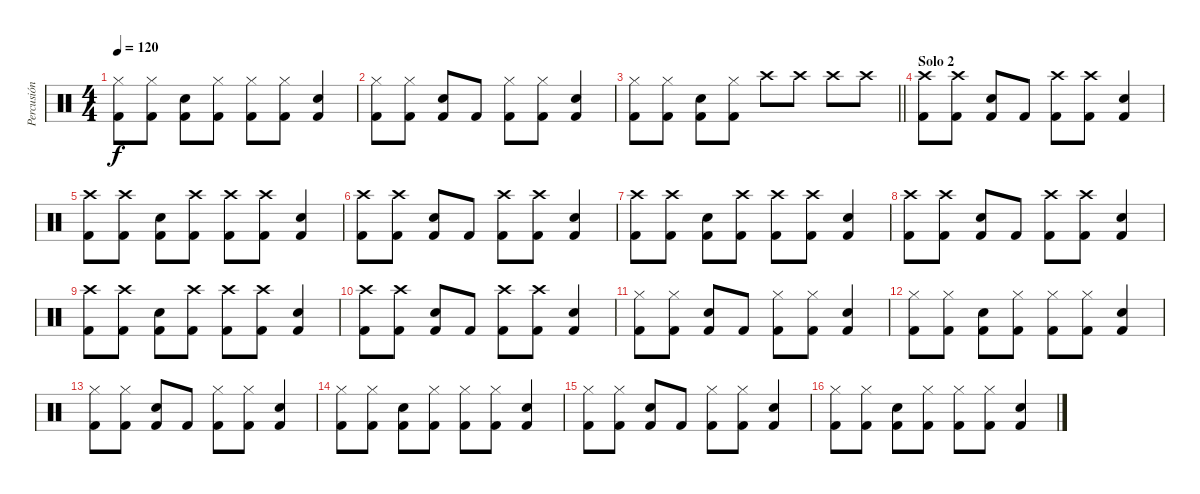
\track ("Percusión" "Percusión") {instrument percussion}
\staff {score}
\articulation defaults
\ts (4 4)
\tempo 120
\clef neutral
\ks c
("Hi-Hat (closed)" "Kick (hit) 2").8{dy f} ("Hi-Hat (closed)" "Kick (hit) 2").8 ("Snare (hit) 2" "Kick (hit) 2").8 ("Hi-Hat (closed)" "Kick (hit) 2").8 ("Hi-Hat (closed)" "Kick (hit) 2").8 ("Hi-Hat (closed)" "Kick (hit) 2").8 ("Snare (hit) 2" "Kick (hit) 2").4 |
("Hi-Hat (closed)" "Kick (hit) 2").8 ("Hi-Hat (closed)" "Kick (hit) 2").8 ("Snare (hit) 2" "Kick (hit) 2").8 "Kick (hit) 2".8 ("Hi-Hat (closed)" "Kick (hit) 2").8 ("Hi-Hat (closed)" "Kick (hit) 2").8 ("Snare (hit) 2" "Kick (hit) 2").4 |
\barLineRight lightlight
("Hi-Hat (closed)" "Kick (hit) 2").8 ("Hi-Hat (closed)" "Kick (hit) 2").8 ("Snare (hit) 2" "Kick (hit) 2").8 ("Hi-Hat (closed)" "Kick (hit) 2").8 "Crash high (hit)".8 "Crash high (hit)".8 "Crash high (hit)".8 "Crash high (hit)".8 |
\section ("" "Solo 2")
("Crash high (hit)" "Kick (hit) 2").8 ("Crash high (hit)" "Kick (hit) 2").8 ("Snare (hit) 2" "Kick (hit) 2").8 "Kick (hit) 2".8 ("Crash high (hit)" "Kick (hit) 2").8 ("Crash high (hit)" "Kick (hit) 2").8 ("Snare (hit) 2" "Kick (hit) 2").4 |
("Crash high (hit)" "Kick (hit) 2").8 ("Crash high (hit)" "Kick (hit) 2").8 ("Snare (hit) 2" "Kick (hit) 2").8 ("Crash high (hit)" "Kick (hit) 2").8 ("Crash high (hit)" "Kick (hit) 2").8 ("Crash high (hit)" "Kick (hit) 2").8 ("Snare (hit) 2" "Kick (hit) 2").4 |
("Crash high (hit)" "Kick (hit) 2").8 ("Crash high (hit)" "Kick (hit) 2").8 ("Snare (hit) 2" "Kick (hit) 2").8 "Kick (hit) 2".8 ("Crash high (hit)" "Kick (hit) 2").8 ("Crash high (hit)" "Kick (hit) 2").8 ("Snare (hit) 2" "Kick (hit) 2").4 |
("Crash high (hit)" "Kick (hit) 2").8 ("Crash high (hit)" "Kick (hit) 2").8 ("Snare (hit) 2" "Kick (hit) 2").8 ("Crash high (hit)" "Kick (hit) 2").8 ("Crash high (hit)" "Kick (hit) 2").8 ("Crash high (hit)" "Kick (hit) 2").8 ("Snare (hit) 2" "Kick (hit) 2").4 |
("Crash high (hit)" "Kick (hit) 2").8 ("Crash high (hit)" "Kick (hit) 2").8 ("Snare (hit) 2" "Kick (hit) 2").8 "Kick (hit) 2".8 ("Crash high (hit)" "Kick (hit) 2").8 ("Crash high (hit)" "Kick (hit) 2").8 ("Snare (hit) 2" "Kick (hit) 2").4 |
("Crash high (hit)" "Kick (hit) 2").8 ("Crash high (hit)" "Kick (hit) 2").8 ("Snare (hit) 2" "Kick (hit) 2").8 ("Crash high (hit)" "Kick (hit) 2").8 ("Crash high (hit)" "Kick (hit) 2").8 ("Crash high (hit)" "Kick (hit) 2").8 ("Snare (hit) 2" "Kick (hit) 2").4 |
("Crash high (hit)" "Kick (hit) 2").8 ("Crash high (hit)" "Kick (hit) 2").8 ("Snare (hit) 2" "Kick (hit) 2").8 "Kick (hit) 2".8 ("Crash high (hit)" "Kick (hit) 2").8 ("Crash high (hit)" "Kick (hit) 2").8 ("Snare (hit) 2" "Kick (hit) 2").4 |
("Hi-Hat (closed)" "Kick (hit) 2").8 ("Hi-Hat (closed)" "Kick (hit) 2").8 ("Snare (hit) 2" "Kick (hit) 2").8 "Kick (hit) 2".8 ("Hi-Hat (closed)" "Kick (hit) 2").8 ("Hi-Hat (closed)" "Kick (hit) 2").8 ("Snare (hit) 2" "Kick (hit) 2").4 |
("Hi-Hat (closed)" "Kick (hit) 2").8 ("Hi-Hat (closed)" "Kick (hit) 2").8 ("Snare (hit) 2" "Kick (hit) 2").8 ("Hi-Hat (closed)" "Kick (hit) 2").8 ("Hi-Hat (closed)" "Kick (hit) 2").8 ("Hi-Hat (closed)" "Kick (hit) 2").8 ("Snare (hit) 2" "Kick (hit) 2").4 |
("Hi-Hat (closed)" "Kick (hit) 2").8 ("Hi-Hat (closed)" "Kick (hit) 2").8 ("Snare (hit) 2" "Kick (hit) 2").8 "Kick (hit) 2".8 ("Hi-Hat (closed)" "Kick (hit) 2").8 ("Hi-Hat (closed)" "Kick (hit) 2").8 ("Snare (hit) 2" "Kick (hit) 2").4 |
("Hi-Hat (closed)" "Kick (hit) 2").8 ("Hi-Hat (closed)" "Kick (hit) 2").8 ("Snare (hit) 2" "Kick (hit) 2").8 ("Hi-Hat (closed)" "Kick (hit) 2").8 ("Hi-Hat (closed)" "Kick (hit) 2").8 ("Hi-Hat (closed)" "Kick (hit) 2").8 ("Snare (hit) 2" "Kick (hit) 2").4 |
("Hi-Hat (closed)" "Kick (hit) 2").8 ("Hi-Hat (closed)" "Kick (hit) 2").8 ("Snare (hit) 2" "Kick (hit) 2").8 "Kick (hit) 2".8 ("Hi-Hat (closed)" "Kick (hit) 2").8 ("Hi-Hat (closed)" "Kick (hit) 2").8 ("Snare (hit) 2" "Kick (hit) 2").4 |
("Hi-Hat (closed)" "Kick (hit) 2").8 ("Hi-Hat (closed)" "Kick (hit) 2").8 ("Snare (hit) 2" "Kick (hit) 2").8 ("Hi-Hat (closed)" "Kick (hit) 2").8 ("Hi-Hat (closed)" "Kick (hit) 2").8 ("Hi-Hat (closed)" "Kick (hit) 2").8 ("Snare (hit) 2" "Kick (hit) 2").4
